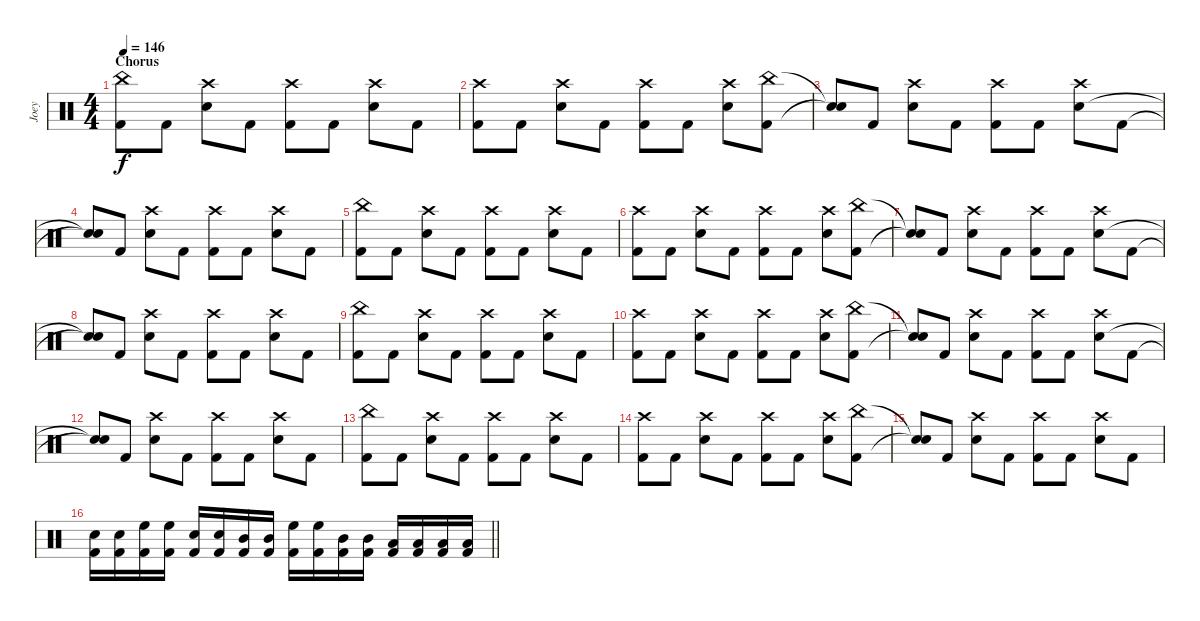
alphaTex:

\track ("Joey" "Joey") {instrument percussion}
\staff {score}
\articulation defaults
\ts (4 4)
\section ("" "Chorus")
\tempo 146
\clef neutral
\ks c
("China (hit)" "Kick (hit) 2").8{dy f} "Kick (hit) 2".8 ("Crash high (hit)" "Snare (hit) 2").8 "Kick (hit) 2".8 ("Crash high (hit)" "Kick (hit) 2").8 "Kick (hit) 2".8 ("Crash high (hit)" "Snare (hit) 2").8 "Kick (hit) 2".8 |
("Crash high (hit)" "Kick (hit) 2").8 "Kick (hit) 2".8 ("Crash high (hit)" "Snare (hit) 2").8 "Kick (hit) 2".8 ("Crash high (hit)" "Kick (hit) 2").8 "Kick (hit) 2".8 ("Crash high (hit)" "Snare (hit) 2").8 ("China (hit)" "Kick (hit) 2").8 |
("Snare (hit)"{t} "Snare (hit)"{t}).8 "Kick (hit) 2".8 ("Crash high (hit)" "Snare (hit) 2").8 "Kick (hit) 2".8 ("Crash high (hit)" "Kick (hit) 2").8 "Kick (hit) 2".8 ("Crash high (hit)" "Snare (hit) 2").8 "Kick (hit) 2".8 |
("Snare (hit)"{t} "Snare (hit)"{t}).8 "Kick (hit) 2".8 ("Crash high (hit)" "Snare (hit) 2").8 "Kick (hit) 2".8 ("Crash high (hit)" "Kick (hit) 2").8 "Kick (hit) 2".8 ("Crash high (hit)" "Snare (hit) 2").8 "Kick (hit) 2".8 |
("China (hit)" "Kick (hit) 2").8 "Kick (hit) 2".8 ("Crash high (hit)" "Snare (hit) 2").8 "Kick (hit) 2".8 ("Crash high (hit)" "Kick (hit) 2").8 "Kick (hit) 2".8 ("Crash high (hit)" "Snare (hit) 2").8 "Kick (hit) 2".8 |
("Crash high (hit)" "Kick (hit) 2").8 "Kick (hit) 2".8 ("Crash high (hit)" "Snare (hit) 2").8 "Kick (hit) 2".8 ("Crash high (hit)" "Kick (hit) 2").8 "Kick (hit) 2".8 ("Crash high (hit)" "Snare (hit) 2").8 ("China (hit)" "Kick (hit) 2").8 |
("Snare (hit)"{t} "Snare (hit)"{t}).8 "Kick (hit) 2".8 ("Crash high (hit)" "Snare (hit) 2").8 "Kick (hit) 2".8 ("Crash high (hit)" "Kick (hit) 2").8 "Kick (hit) 2".8 ("Crash high (hit)" "Snare (hit) 2").8 "Kick (hit) 2".8 |
("Snare (hit)"{t} "Snare (hit)"{t}).8 "Kick (hit) 2".8 ("Crash high (hit)" "Snare (hit) 2").8 "Kick (hit) 2".8 ("Crash high (hit)" "Kick (hit) 2").8 "Kick (hit) 2".8 ("Crash high (hit)" "Snare (hit) 2").8 "Kick (hit) 2".8 |
("China (hit)" "Kick (hit) 2").8 "Kick (hit) 2".8 ("Crash high (hit)" "Snare (hit) 2").8 "Kick (hit) 2".8 ("Crash high (hit)" "Kick (hit) 2").8 "Kick (hit) 2".8 ("Crash high (hit)" "Snare (hit) 2").8 "Kick (hit) 2".8 |
("Crash high (hit)" "Kick (hit) 2").8 "Kick (hit) 2".8 ("Crash high (hit)" "Snare (hit) 2").8 "Kick (hit) 2".8 ("Crash high (hit)" "Kick (hit) 2").8 "Kick (hit) 2".8 ("Crash high (hit)" "Snare (hit) 2").8 ("China (hit)" "Kick (hit) 2").8 |
("Snare (hit)"{t} "Snare (hit)"{t}).8 "Kick (hit) 2".8 ("Crash high (hit)" "Snare (hit) 2").8 "Kick (hit) 2".8 ("Crash high (hit)" "Kick (hit) 2").8 "Kick (hit) 2".8 ("Crash high (hit)" "Snare (hit) 2").8 "Kick (hit) 2".8 |
("Snare (hit)"{t} "Snare (hit)"{t}).8 "Kick (hit) 2".8 ("Crash high (hit)" "Snare (hit) 2").8 "Kick (hit) 2".8 ("Crash high (hit)" "Kick (hit) 2").8 "Kick (hit) 2".8 ("Crash high (hit)" "Snare (hit) 2").8 "Kick (hit) 2".8 |
("China (hit)" "Kick (hit) 2").8 "Kick (hit) 2".8 ("Crash high (hit)" "Snare (hit) 2").8 "Kick (hit) 2".8 ("Crash high (hit)" "Kick (hit) 2").8 "Kick (hit) 2".8 ("Crash high (hit)" "Snare (hit) 2").8 "Kick (hit) 2".8 |
("Crash high (hit)" "Kick (hit) 2").8 "Kick (hit) 2".8 ("Crash high (hit)" "Snare (hit) 2").8 "Kick (hit) 2".8 ("Crash high (hit)" "Kick (hit) 2").8 "Kick (hit) 2".8 ("Crash high (hit)" "Snare (hit) 2").8 ("China (hit)" "Kick (hit) 2").8 |
("Snare (hit)"{t} "Snare (hit)"{t}).8 "Kick (hit) 2".8 ("Crash high (hit)" "Snare (hit) 2").8 "Kick (hit) 2".8 ("Crash high (hit)" "Kick (hit) 2").8 "Kick (hit) 2".8 ("Crash high (hit)" "Snare (hit) 2").8 "Kick (hit) 2".8 |
\barLineRight lightlight
("Kick (hit) 2" "Snare (hit) 2").16 ("Kick (hit) 2" "Snare (hit) 2").16 ("Kick (hit) 2" "High Floor Tom (hit)").16 ("Kick (hit) 2" "High Floor Tom (hit)").16 ("Kick (hit) 2" "Snare (hit) 2").16 ("Kick (hit) 2" "Snare (hit) 2").16 ("Kick (hit) 2" "Mid Tom (hit)").16 ("Kick (hit) 2" "Mid Tom (hit)").16 ("Kick (hit) 2" "High Floor Tom (hit)").16 ("Kick (hit) 2" "High Floor Tom (hit)").16 ("Kick (hit) 2" "Mid Tom (hit)").16 ("Kick (hit) 2" "Mid Tom (hit)").16 ("Kick (hit) 2" "Low Tom (hit)").16 ("Kick (hit) 2" "Low Tom (hit)").16 ("Kick (hit) 2" "Low Floor Tom (hit)").16 ("Kick (hit) 2" "Low Floor Tom (hit)").16
